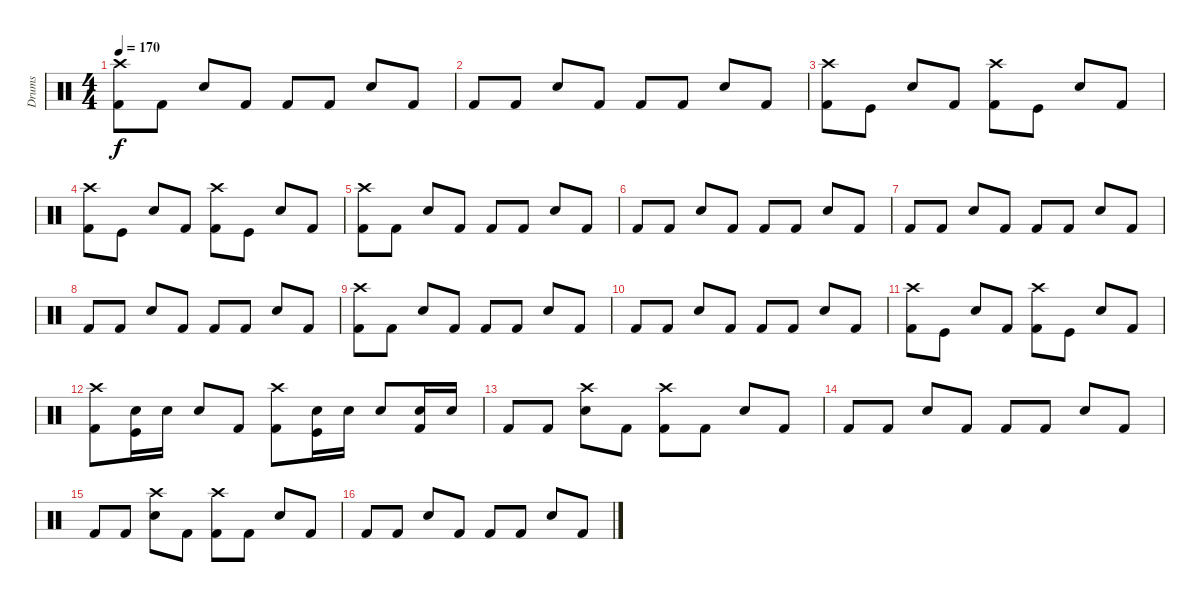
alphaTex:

\track ("Drums" "Drums") {instrument percussion}
\staff {score}
\articulation defaults
\ts (4 4)
\tempo 170
\clef neutral
\ks c
("Kick (hit) 2" "Crash high (hit)").8{dy f} "Kick (hit) 2".8 "Snare (hit) 2".8 "Kick (hit) 2".8 "Kick (hit) 2".8 "Kick (hit) 2".8 "Snare (hit) 2".8 "Kick (hit) 2".8 |
"Kick (hit) 2".8 "Kick (hit) 2".8 "Snare (hit) 2".8 "Kick (hit) 2".8 "Kick (hit) 2".8 "Kick (hit) 2".8 "Snare (hit) 2".8 "Kick (hit) 2".8 |
("Kick (hit) 2" "Crash high (hit)").8 "Kick (hit)".8 "Snare (hit) 2".8 "Kick (hit) 2".8 ("Kick (hit) 2" "Crash high (hit)").8 "Kick (hit)".8 "Snare (hit) 2".8 "Kick (hit) 2".8 |
("Kick (hit) 2" "Crash high (hit)").8 "Kick (hit)".8 "Snare (hit) 2".8 "Kick (hit) 2".8 ("Kick (hit) 2" "Crash high (hit)").8 "Kick (hit)".8 "Snare (hit) 2".8 "Kick (hit) 2".8 |
("Kick (hit) 2" "Crash high (hit)").8 "Kick (hit) 2".8 "Snare (hit) 2".8 "Kick (hit) 2".8 "Kick (hit) 2".8 "Kick (hit) 2".8 "Snare (hit) 2".8 "Kick (hit) 2".8 |
"Kick (hit) 2".8 "Kick (hit) 2".8 "Snare (hit) 2".8 "Kick (hit) 2".8 "Kick (hit) 2".8 "Kick (hit) 2".8 "Snare (hit) 2".8 "Kick (hit) 2".8 |
"Kick (hit) 2".8 "Kick (hit) 2".8 "Snare (hit) 2".8 "Kick (hit) 2".8 "Kick (hit) 2".8 "Kick (hit) 2".8 "Snare (hit) 2".8 "Kick (hit) 2".8 |
"Kick (hit) 2".8 "Kick (hit) 2".8 "Snare (hit) 2".8 "Kick (hit) 2".8 "Kick (hit) 2".8 "Kick (hit) 2".8 "Snare (hit) 2".8 "Kick (hit) 2".8 |
("Kick (hit) 2" "Crash high (hit)").8 "Kick (hit) 2".8 "Snare (hit) 2".8 "Kick (hit) 2".8 "Kick (hit) 2".8 "Kick (hit) 2".8 "Snare (hit) 2".8 "Kick (hit) 2".8 |
"Kick (hit) 2".8 "Kick (hit) 2".8 "Snare (hit) 2".8 "Kick (hit) 2".8 "Kick (hit) 2".8 "Kick (hit) 2".8 "Snare (hit) 2".8 "Kick (hit) 2".8 |
("Kick (hit) 2" "Crash high (hit)").8 "Kick (hit)".8 "Snare (hit) 2".8 "Kick (hit) 2".8 ("Kick (hit) 2" "Crash high (hit)").8 "Kick (hit)".8 "Snare (hit) 2".8 "Kick (hit) 2".8 |
("Kick (hit) 2" "Crash high (hit)").8 ("Snare (hit) 2" "Kick (hit)").16 "Snare (hit) 2".16 "Snare (hit) 2".8 "Kick (hit) 2".8 ("Kick (hit) 2" "Crash high (hit)").8 ("Snare (hit) 2" "Kick (hit)").16 "Snare (hit) 2".16 "Snare (hit) 2".8 ("Snare (hit) 2" "Kick (hit) 2").16 "Snare (hit) 2".16 |
"Kick (hit) 2".8 "Kick (hit) 2".8 ("Snare (hit) 2" "Crash high (hit)").8 "Kick (hit) 2".8 ("Kick (hit) 2" "Crash high (hit)").8 "Kick (hit) 2".8 "Snare (hit) 2".8 "Kick (hit) 2".8 |
"Kick (hit) 2".8 "Kick (hit) 2".8 "Snare (hit) 2".8 "Kick (hit) 2".8 "Kick (hit) 2".8 "Kick (hit) 2".8 "Snare (hit) 2".8 "Kick (hit) 2".8 |
"Kick (hit) 2".8 "Kick (hit) 2".8 ("Snare (hit) 2" "Crash high (hit)").8 "Kick (hit) 2".8 ("Kick (hit) 2" "Crash high (hit)").8 "Kick (hit) 2".8 "Snare (hit) 2".8 "Kick (hit) 2".8 |
"Kick (hit) 2".8 "Kick (hit) 2".8 "Snare (hit) 2".8 "Kick (hit) 2".8 "Kick (hit) 2".8 "Kick (hit) 2".8 "Snare (hit) 2".8 "Kick (hit) 2".8
